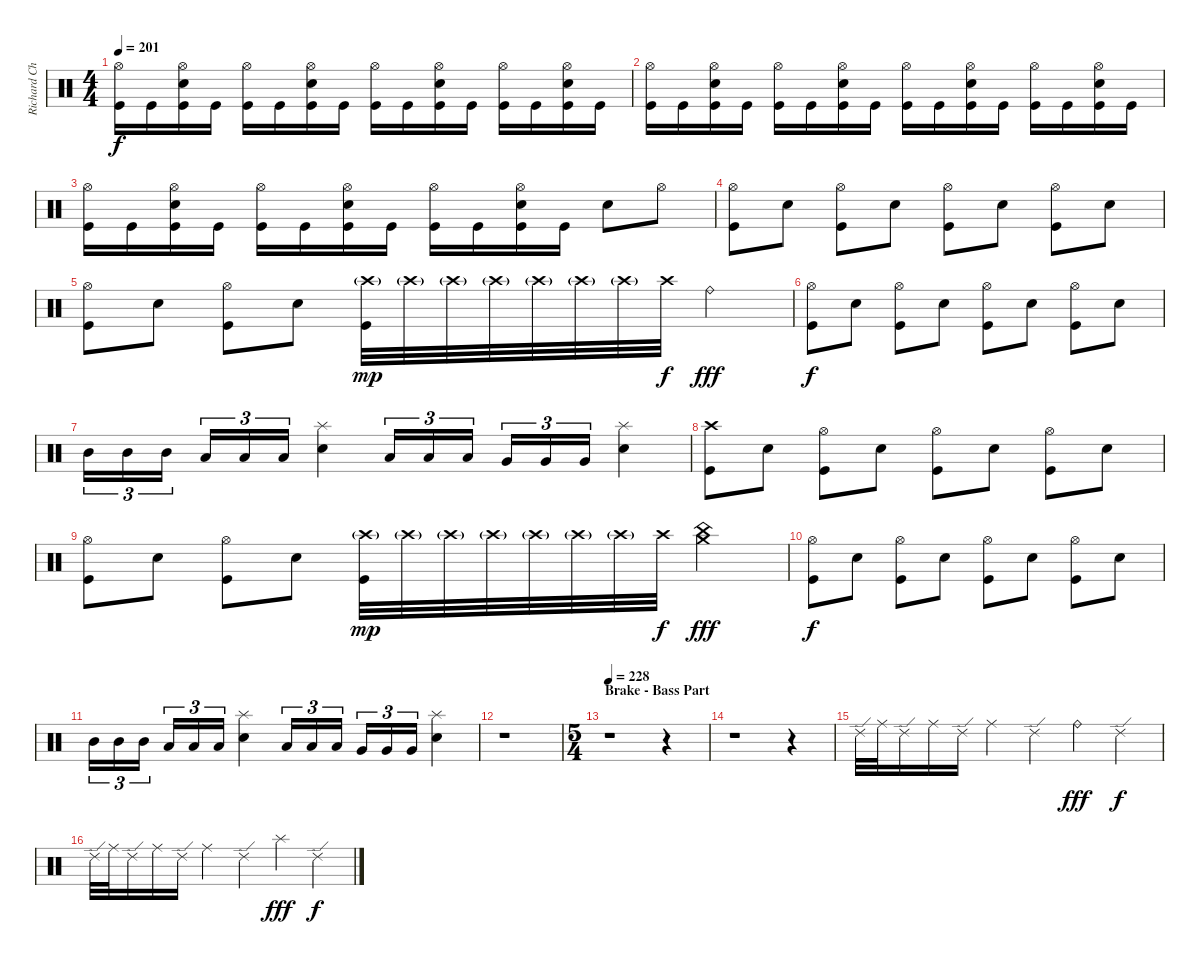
\track ("Richard Christy " "Richard Ch") {instrument percussion}
\staff {score}
\articulation defaults
\ts (4 4)
\tempo 201
\clef neutral
\ks c
("Hi-Hat (open)" "Kick (hit)").16{dy f} "Kick (hit)".16 ("Hi-Hat (open)" "Electric Snare (hit)" "Kick (hit)").16 "Kick (hit)".16 ("Hi-Hat (open)" "Kick (hit)").16 "Kick (hit)".16 ("Hi-Hat (open)" "Electric Snare (hit)" "Kick (hit)").16 "Kick (hit)".16 ("Hi-Hat (open)" "Kick (hit)").16 "Kick (hit)".16 ("Hi-Hat (open)" "Electric Snare (hit)" "Kick (hit)").16 "Kick (hit)".16 ("Hi-Hat (open)" "Kick (hit)").16 "Kick (hit)".16 ("Hi-Hat (open)" "Electric Snare (hit)" "Kick (hit)").16 "Kick (hit)".16 |
("Hi-Hat (open)" "Kick (hit)").16 "Kick (hit)".16 ("Hi-Hat (open)" "Electric Snare (hit)" "Kick (hit)").16 "Kick (hit)".16 ("Hi-Hat (open)" "Kick (hit)").16 "Kick (hit)".16 ("Hi-Hat (open)" "Electric Snare (hit)" "Kick (hit)").16 "Kick (hit)".16 ("Hi-Hat (open)" "Kick (hit)").16 "Kick (hit)".16 ("Hi-Hat (open)" "Electric Snare (hit)" "Kick (hit)").16 "Kick (hit)".16 ("Hi-Hat (open)" "Kick (hit)").16 "Kick (hit)".16 ("Hi-Hat (open)" "Electric Snare (hit)" "Kick (hit)").16 "Kick (hit)".16 |
("Hi-Hat (open)" "Kick (hit)").16 "Kick (hit)".16 ("Hi-Hat (open)" "Electric Snare (hit)" "Kick (hit)").16 "Kick (hit)".16 ("Hi-Hat (open)" "Kick (hit)").16 "Kick (hit)".16 ("Hi-Hat (open)" "Electric Snare (hit)" "Kick (hit)").16 "Kick (hit)".16 ("Hi-Hat (open)" "Kick (hit)").16 "Kick (hit)".16 ("Hi-Hat (open)" "Electric Snare (hit)" "Kick (hit)").16 "Kick (hit)".16 "Electric Snare (hit)".8 "Hi-Hat (open)".8 |
("Hi-Hat (open)" "Kick (hit)").8 "Electric Snare (hit)".8 ("Hi-Hat (open)" "Kick (hit)").8 "Electric Snare (hit)".8 ("Hi-Hat (open)" "Kick (hit)").8 "Electric Snare (hit)".8 ("Hi-Hat (open)" "Kick (hit)").8 "Electric Snare (hit)".8 |
("Hi-Hat (open)" "Kick (hit)").8 "Electric Snare (hit)".8 ("Hi-Hat (open)" "Kick (hit)").8 "Electric Snare (hit)".8 ("Crash high (hit)"{g} "Kick (hit)").32{dy mp} "Crash high (hit)"{g}.32 "Crash high (hit)"{g}.32 "Crash high (hit)"{g}.32 "Crash high (hit)"{g}.32 "Crash high (hit)"{g}.32 "Crash high (hit)"{g}.32 "Crash high (hit)".32{dy f} "Ride (bell)".4{dy fff} |
("Hi-Hat (open)" "Kick (hit)").8{dy f} "Electric Snare (hit)".8 ("Hi-Hat (open)" "Kick (hit)").8 "Electric Snare (hit)".8 ("Hi-Hat (open)" "Kick (hit)").8 "Electric Snare (hit)".8 ("Hi-Hat (open)" "Kick (hit)").8 "Electric Snare (hit)".8 |
"Mid Tom (hit)".16{tu (3 2)} "Mid Tom (hit)".16{tu (3 2)} "Mid Tom (hit)".16{tu (3 2)} "Low Tom (hit)".16{tu (3 2)} "Low Tom (hit)".16{tu (3 2)} "Low Tom (hit)".16{tu (3 2)} ("Splash (hit)" "Electric Snare (hit)").4 "Low Tom (hit)".16{tu (3 2)} "Low Tom (hit)".16{tu (3 2)} "Low Tom (hit)".16{tu (3 2)} "Very Low Tom (hit)".16{tu (3 2)} "Very Low Tom (hit)".16{tu (3 2)} "Very Low Tom (hit)".16{tu (3 2)} ("Splash (hit)" "Electric Snare (hit)").4 |
("Crash high (hit)" "Kick (hit)").8 "Electric Snare (hit)".8 ("Hi-Hat (open)" "Kick (hit)").8 "Electric Snare (hit)".8 ("Hi-Hat (open)" "Kick (hit)").8 "Electric Snare (hit)".8 ("Hi-Hat (open)" "Kick (hit)").8 "Electric Snare (hit)".8 |
("Hi-Hat (open)" "Kick (hit)").8 "Electric Snare (hit)".8 ("Hi-Hat (open)" "Kick (hit)").8 "Electric Snare (hit)".8 ("Crash high (hit)"{g} "Kick (hit)").32{dy mp} "Crash high (hit)"{g}.32 "Crash high (hit)"{g}.32 "Crash high (hit)"{g}.32 "Crash high (hit)"{g}.32 "Crash high (hit)"{g}.32 "Crash high (hit)"{g}.32 "Crash high (hit)".32{dy f} ("Crash medium (hit)" "China (hit)").4{dy fff} |
("Hi-Hat (open)" "Kick (hit)").8{dy f} "Electric Snare (hit)".8 ("Hi-Hat (open)" "Kick (hit)").8 "Electric Snare (hit)".8 ("Hi-Hat (open)" "Kick (hit)").8 "Electric Snare (hit)".8 ("Hi-Hat (open)" "Kick (hit)").8 "Electric Snare (hit)".8 |
"Mid Tom (hit)".16{tu (3 2)} "Mid Tom (hit)".16{tu (3 2)} "Mid Tom (hit)".16{tu (3 2)} "Low Tom (hit)".16{tu (3 2)} "Low Tom (hit)".16{tu (3 2)} "Low Tom (hit)".16{tu (3 2)} ("Splash (hit)" "Electric Snare (hit)").4 "Low Tom (hit)".16{tu (3 2)} "Low Tom (hit)".16{tu (3 2)} "Low Tom (hit)".16{tu (3 2)} "Very Low Tom (hit)".16{tu (3 2)} "Very Low Tom (hit)".16{tu (3 2)} "Very Low Tom (hit)".16{tu (3 2)} ("Splash (hit)" "Electric Snare (hit)").4 |
r.1 |
\ts (5 4)
\section ("" "Brake - Bass Part")
\tempo 228
r.1 r.4 |
r.1 r.4 |
"Ride (edge) 2".32 "Ride (middle)".32 "Ride (edge) 2".16 "Ride (middle)".16 "Ride (edge) 2".16 "Ride (middle)".4 "Ride (edge) 2".4 "Ride (bell)".4{dy fff} "Ride (edge) 2".4{dy f} |
"Ride (edge) 2".32 "Ride (middle)".32 "Ride (edge) 2".16 "Ride (middle)".16 "Ride (edge) 2".16 "Ride (middle)".4 "Ride (edge) 2".4 "Splash (hit)".4{dy fff} "Ride (edge) 2".4{dy f}
